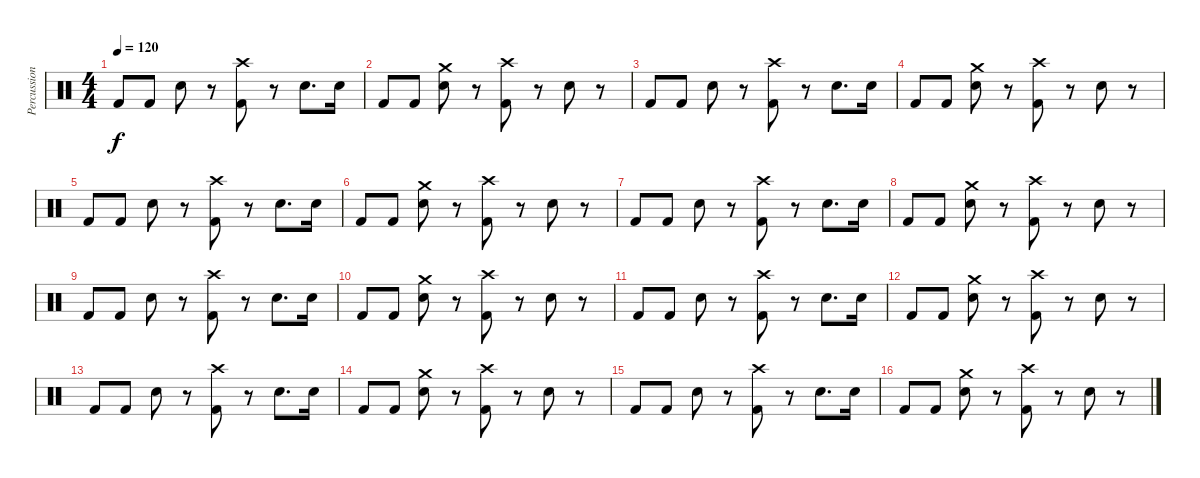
\track ("Percussions" "Percussion") {instrument percussion}
\staff {score}
\articulation defaults
\ts (4 4)
\tempo 120
\clef neutral
\ks c "Kick (hit) 2".8{dy f} "Kick (hit) 2".8 "Electric Snare (hit)".8
r.8 ("Crash high (hit)" "Kick (hit) 2").8 r.8 "Electric Snare (hit)".8{d} "Electric Snare (hit)".16 |
"Kick (hit) 2".8 "Kick (hit) 2".8 ("Crash medium (hit)" "Electric Snare (hit)").8 r.8 ("Crash high (hit)" "Kick (hit) 2").8 r.8 "Electric Snare (hit)".8 r.8 |
"Kick (hit) 2".8 "Kick (hit) 2".8 "Electric Snare (hit)".8 r.8 ("Crash high (hit)" "Kick (hit) 2").8 r.8 "Electric Snare (hit)".8{d} "Electric Snare (hit)".16 |
"Kick (hit) 2".8 "Kick (hit) 2".8 ("Crash medium (hit)" "Electric Snare (hit)").8 r.8 ("Crash high (hit)" "Kick (hit) 2").8 r.8 "Electric Snare (hit)".8 r.8 |
"Kick (hit) 2".8 "Kick (hit) 2".8 "Electric Snare (hit)".8 r.8 ("Crash high (hit)" "Kick (hit) 2").8 r.8 "Electric Snare (hit)".8{d} "Electric Snare (hit)".16 |
"Kick (hit) 2".8 "Kick (hit) 2".8 ("Crash medium (hit)" "Electric Snare (hit)").8 r.8 ("Crash high (hit)" "Kick (hit) 2").8 r.8 "Electric Snare (hit)".8 r.8 |
"Kick (hit) 2".8 "Kick (hit) 2".8 "Electric Snare (hit)".8 r.8 ("Crash high (hit)" "Kick (hit) 2").8 r.8 "Electric Snare (hit)".8{d} "Electric Snare (hit)".16 |
"Kick (hit) 2".8 "Kick (hit) 2".8 ("Crash medium (hit)" "Electric Snare (hit)").8 r.8 ("Crash high (hit)" "Kick (hit) 2").8 r.8 "Electric Snare (hit)".8 r.8 |
"Kick (hit) 2".8 "Kick (hit) 2".8 "Electric Snare (hit)".8 r.8 ("Crash high (hit)" "Kick (hit) 2").8 r.8 "Electric Snare (hit)".8{d} "Electric Snare (hit)".16 |
"Kick (hit) 2".8 "Kick (hit) 2".8 ("Crash medium (hit)" "Electric Snare (hit)").8 r.8 ("Crash high (hit)" "Kick (hit) 2").8 r.8 "Electric Snare (hit)".8 r.8 |
"Kick (hit) 2".8 "Kick (hit) 2".8 "Electric Snare (hit)".8 r.8 ("Crash high (hit)" "Kick (hit) 2").8 r.8 "Electric Snare (hit)".8{d} "Electric Snare (hit)".16 |
"Kick (hit) 2".8 "Kick (hit) 2".8 ("Crash medium (hit)" "Electric Snare (hit)").8 r.8 ("Crash high (hit)" "Kick (hit) 2").8 r.8 "Electric Snare (hit)".8 r.8 |
"Kick (hit) 2".8 "Kick (hit) 2".8 "Electric Snare (hit)".8 r.8 ("Crash high (hit)" "Kick (hit) 2").8 r.8 "Electric Snare (hit)".8{d} "Electric Snare (hit)".16 |
"Kick (hit) 2".8 "Kick (hit) 2".8 ("Crash medium (hit)" "Electric Snare (hit)").8 r.8 ("Crash high (hit)" "Kick (hit) 2").8 r.8 "Electric Snare (hit)".8 r.8 |
"Kick (hit) 2".8 "Kick (hit) 2".8 "Electric Snare (hit)".8 r.8 ("Crash high (hit)" "Kick (hit) 2").8 r.8 "Electric Snare (hit)".8{d} "Electric Snare (hit)".16 |
"Kick (hit) 2".8 "Kick (hit) 2".8 ("Crash medium (hit)" "Electric Snare (hit)").8 r.8 ("Crash high (hit)" "Kick (hit) 2").8 r.8 "Electric Snare (hit)".8 r.8
